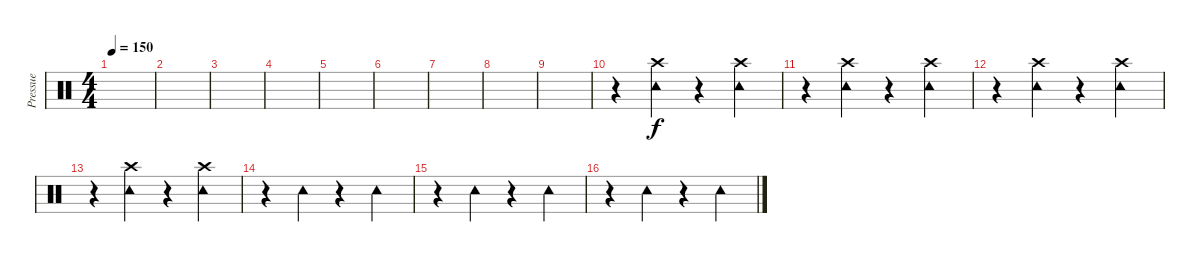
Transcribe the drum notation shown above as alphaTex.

\track ("Pressue" "Pressue") {instrument percussion}
\staff {score}
\articulation defaults
\ts (4 4)
\tempo 150
\clef neutral
\ks c
|
|
|
|
|
|
|
|
|
r.4 ("Crash high (hit)" "Tambourine (hit)").4 r.4 ("Crash high (hit)" "Tambourine (hit)").4 |
r.4 ("Crash high (hit)" "Tambourine (hit)").4 r.4 ("Crash high (hit)" "Tambourine (hit)").4 |
r.4 ("Crash high (hit)" "Tambourine (hit)").4 r.4 ("Crash high (hit)" "Tambourine (hit)").4 |
r.4 ("Crash high (hit)" "Tambourine (hit)").4 r.4 ("Crash high (hit)" "Tambourine (hit)").4 |
r.4 "Tambourine (hit)".4 r.4 "Tambourine (hit)".4 |
r.4 "Tambourine (hit)".4 r.4 "Tambourine (hit)".4 |
r.4 "Tambourine (hit)".4 r.4 "Tambourine (hit)".4
